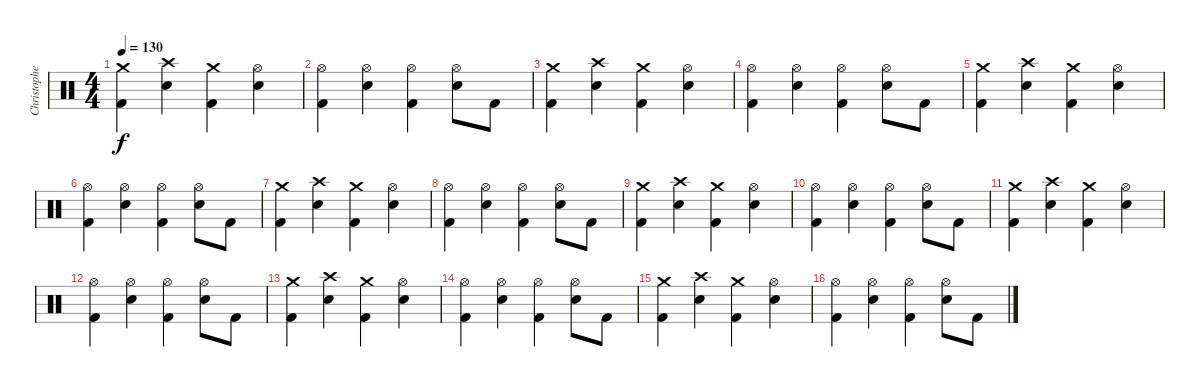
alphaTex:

\track ("Christopher Schneider" "Christophe") {instrument percussion}
\staff {score}
\articulation defaults
\ts (4 4)
\tempo 130
\clef neutral
\ks c
("Crash medium (hit)" "Kick (hit) 2").4{dy f} ("Crash high (hit)" "Electric Snare (hit)").4 ("Crash medium (hit)" "Kick (hit) 2").4 ("Hi-Hat (open)" "Electric Snare (hit)").4 |
("Hi-Hat (open)" "Kick (hit) 2").4 ("Hi-Hat (open)" "Electric Snare (hit)").4 ("Hi-Hat (open)" "Kick (hit) 2").4 ("Hi-Hat (open)" "Electric Snare (hit)").8 "Kick (hit) 2".8 |
("Crash medium (hit)" "Kick (hit) 2").4 ("Crash high (hit)" "Electric Snare (hit)").4 ("Crash medium (hit)" "Kick (hit) 2").4 ("Hi-Hat (open)" "Electric Snare (hit)").4 |
("Hi-Hat (open)" "Kick (hit) 2").4 ("Hi-Hat (open)" "Electric Snare (hit)").4 ("Hi-Hat (open)" "Kick (hit) 2").4 ("Hi-Hat (open)" "Electric Snare (hit)").8 "Kick (hit) 2".8 |
("Crash medium (hit)" "Kick (hit) 2").4 ("Crash high (hit)" "Electric Snare (hit)").4 ("Crash medium (hit)" "Kick (hit) 2").4 ("Hi-Hat (open)" "Electric Snare (hit)").4 |
("Hi-Hat (open)" "Kick (hit) 2").4 ("Hi-Hat (open)" "Electric Snare (hit)").4 ("Hi-Hat (open)" "Kick (hit) 2").4 ("Hi-Hat (open)" "Electric Snare (hit)").8 "Kick (hit) 2".8 |
("Crash medium (hit)" "Kick (hit) 2").4 ("Crash high (hit)" "Electric Snare (hit)").4 ("Crash medium (hit)" "Kick (hit) 2").4 ("Hi-Hat (open)" "Electric Snare (hit)").4 |
("Hi-Hat (open)" "Kick (hit) 2").4 ("Hi-Hat (open)" "Electric Snare (hit)").4 ("Hi-Hat (open)" "Kick (hit) 2").4 ("Hi-Hat (open)" "Electric Snare (hit)").8 "Kick (hit) 2".8 |
("Crash medium (hit)" "Kick (hit) 2").4 ("Crash high (hit)" "Electric Snare (hit)").4 ("Crash medium (hit)" "Kick (hit) 2").4 ("Hi-Hat (open)" "Electric Snare (hit)").4 |
("Hi-Hat (open)" "Kick (hit) 2").4 ("Hi-Hat (open)" "Electric Snare (hit)").4 ("Hi-Hat (open)" "Kick (hit) 2").4 ("Hi-Hat (open)" "Electric Snare (hit)").8 "Kick (hit) 2".8 |
("Crash medium (hit)" "Kick (hit) 2").4 ("Crash high (hit)" "Electric Snare (hit)").4 ("Crash medium (hit)" "Kick (hit) 2").4 ("Hi-Hat (open)" "Electric Snare (hit)").4 |
("Hi-Hat (open)" "Kick (hit) 2").4 ("Hi-Hat (open)" "Electric Snare (hit)").4 ("Hi-Hat (open)" "Kick (hit) 2").4 ("Hi-Hat (open)" "Electric Snare (hit)").8 "Kick (hit) 2".8 |
("Crash medium (hit)" "Kick (hit) 2").4 ("Crash high (hit)" "Electric Snare (hit)").4 ("Crash medium (hit)" "Kick (hit) 2").4 ("Hi-Hat (open)" "Electric Snare (hit)").4 |
("Hi-Hat (open)" "Kick (hit) 2").4 ("Hi-Hat (open)" "Electric Snare (hit)").4 ("Hi-Hat (open)" "Kick (hit) 2").4 ("Hi-Hat (open)" "Electric Snare (hit)").8 "Kick (hit) 2".8 |
("Crash medium (hit)" "Kick (hit) 2").4 ("Crash high (hit)" "Electric Snare (hit)").4 ("Crash medium (hit)" "Kick (hit) 2").4 ("Hi-Hat (open)" "Electric Snare (hit)").4 |
("Hi-Hat (open)" "Kick (hit) 2").4 ("Hi-Hat (open)" "Electric Snare (hit)").4 ("Hi-Hat (open)" "Kick (hit) 2").4 ("Hi-Hat (open)" "Electric Snare (hit)").8 "Kick (hit) 2".8
